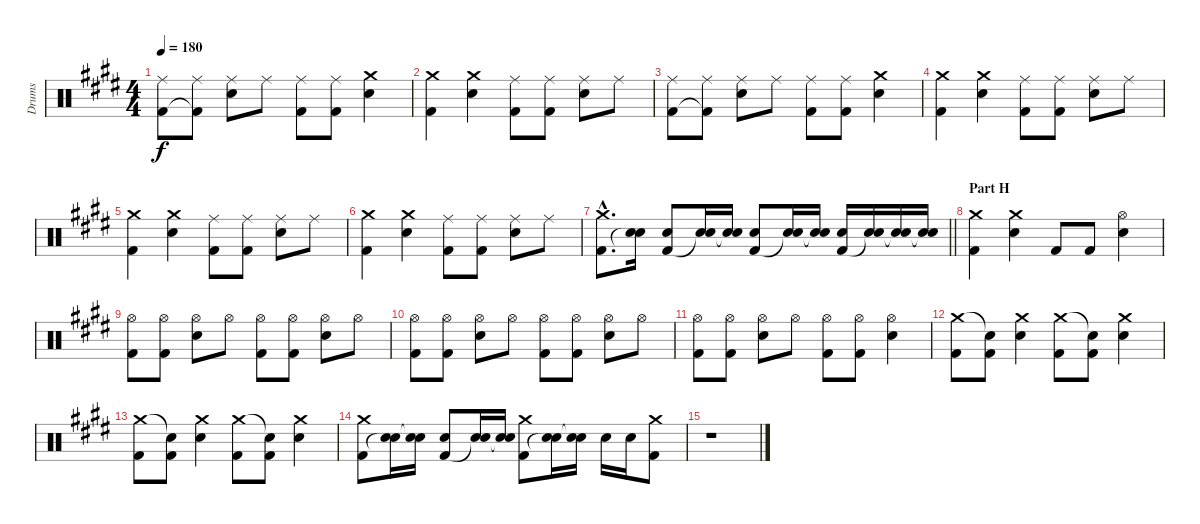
\track ("Drums" "Drums") {instrument percussion}
\staff {score}
\articulation defaults
\ts (4 4)
\tempo 180
\clef neutral
\ks e
("Ride (middle)" "Kick (hit) 2").8{dy f} ("Ride (middle)" "Kick (hit) 2"{t}).8 ("Ride (middle)" "Electric Snare (hit)").8 "Ride (middle)".8 ("Ride (middle)" "Kick (hit) 2").8 ("Ride (middle)" "Kick (hit) 2").8 ("Crash medium (hit)" "Electric Snare (hit)").4 |
("Crash medium (hit)" "Kick (hit) 2").4 ("Crash medium (hit)" "Electric Snare (hit)").4 ("Ride (middle)" "Kick (hit) 2").8 ("Ride (middle)" "Kick (hit) 2").8 ("Ride (middle)" "Electric Snare (hit)").8 "Ride (middle)".8 |
("Ride (middle)" "Kick (hit) 2").8 ("Ride (middle)" "Kick (hit) 2"{t}).8 ("Ride (middle)" "Electric Snare (hit)").8 "Ride (middle)".8 ("Ride (middle)" "Kick (hit) 2").8 ("Ride (middle)" "Kick (hit) 2").8 ("Crash medium (hit)" "Electric Snare (hit)").4 |
("Crash medium (hit)" "Kick (hit) 2").4 ("Crash medium (hit)" "Electric Snare (hit)").4 ("Ride (middle)" "Kick (hit) 2").8 ("Ride (middle)" "Kick (hit) 2").8 ("Ride (middle)" "Electric Snare (hit)").8 "Ride (middle)".8 |
("Crash medium (hit)" "Kick (hit) 2").4 ("Crash medium (hit)" "Electric Snare (hit)").4 ("Ride (middle)" "Kick (hit) 2").8 ("Ride (middle)" "Kick (hit) 2").8 ("Ride (middle)" "Electric Snare (hit)").8 "Ride (middle)".8 |
("Crash medium (hit)" "Kick (hit) 2").4 ("Crash medium (hit)" "Electric Snare (hit)").4 ("Ride (middle)" "Kick (hit) 2").8 ("Ride (middle)" "Kick (hit) 2").8 ("Ride (middle)" "Electric Snare (hit)").8 "Ride (middle)".8 |
\barLineRight lightlight
("Crash medium (hit)"{hac} "Kick (hit) 2"{hac}).8{d} ("Electric Snare (hit)" "Snare (hit)"{t}).16 ("Electric Snare (hit)" "Kick (hit) 2").8 ("Electric Snare (hit)" "Snare (hit)"{t}).16 ("Electric Snare (hit)" "Snare (hit)"{t}).16 ("Electric Snare (hit)" "Kick (hit) 2").8 ("Electric Snare (hit)" "Snare (hit)"{t}).16 ("Electric Snare (hit)" "Snare (hit)"{t}).16 ("Electric Snare (hit)" "Kick (hit) 2").16 ("Electric Snare (hit)" "Snare (hit)"{t}).16 ("Electric Snare (hit)" "Snare (hit)"{t}).16 ("Electric Snare (hit)" "Snare (hit)"{t}).16 |
\section ("" "Part H")
("Crash medium (hit)" "Kick (hit) 2").4 ("Crash medium (hit)" "Electric Snare (hit)").4 "Kick (hit) 2".8 "Kick (hit) 2".8 ("Hi-Hat (open)" "Electric Snare (hit)").4 |
("Hi-Hat (open)" "Kick (hit) 2").8 ("Hi-Hat (open)" "Kick (hit) 2").8 ("Hi-Hat (open)" "Electric Snare (hit)").8 "Hi-Hat (open)".8 ("Hi-Hat (open)" "Kick (hit) 2").8 ("Hi-Hat (open)" "Kick (hit) 2").8 ("Hi-Hat (open)" "Electric Snare (hit)").8 "Hi-Hat (open)".8 |
("Hi-Hat (open)" "Kick (hit) 2").8 ("Hi-Hat (open)" "Kick (hit) 2").8 ("Hi-Hat (open)" "Electric Snare (hit)").8 "Hi-Hat (open)".8 ("Hi-Hat (open)" "Kick (hit) 2").8 ("Hi-Hat (open)" "Kick (hit) 2").8 ("Hi-Hat (open)" "Electric Snare (hit)").8 "Hi-Hat (open)".8 |
("Hi-Hat (open)" "Kick (hit) 2").8 ("Hi-Hat (open)" "Kick (hit) 2").8 ("Hi-Hat (open)" "Electric Snare (hit)").8 "Hi-Hat (open)".8 ("Hi-Hat (open)" "Kick (hit) 2").8 ("Hi-Hat (open)" "Kick (hit) 2").8 ("Hi-Hat (open)" "Electric Snare (hit)").4 |
("Crash medium (hit)" "Kick (hit) 2").8 ("Snare (hit)"{t} "Kick (hit) 2").8 ("Crash medium (hit)" "Electric Snare (hit)").4 ("Crash medium (hit)" "Kick (hit) 2").8 ("Snare (hit)"{t} "Kick (hit) 2").8 ("Crash medium (hit)" "Electric Snare (hit)").4 |
("Crash medium (hit)" "Kick (hit) 2").8 ("Snare (hit)"{t} "Kick (hit) 2").8 ("Crash medium (hit)" "Electric Snare (hit)").4 ("Crash medium (hit)" "Kick (hit) 2").8 ("Snare (hit)"{t} "Kick (hit) 2").8 ("Crash medium (hit)" "Electric Snare (hit)").4 |
("Crash medium (hit)" "Kick (hit) 2").8 ("Electric Snare (hit)" "Snare (hit)"{t}).16 ("Electric Snare (hit)" "Snare (hit)"{t}).16 ("Electric Snare (hit)" "Kick (hit) 2").8 ("Electric Snare (hit)" "Snare (hit)"{t}).16 ("Electric Snare (hit)" "Snare (hit)"{t}).16 ("Crash medium (hit)" "Kick (hit) 2").8 ("Electric Snare (hit)" "Snare (hit)"{t}).16 ("Electric Snare (hit)" "Snare (hit)"{t}).16 "Electric Snare (hit)".16 "Electric Snare (hit)".16 ("Crash medium (hit)" "Kick (hit) 2").8 |
r.1
